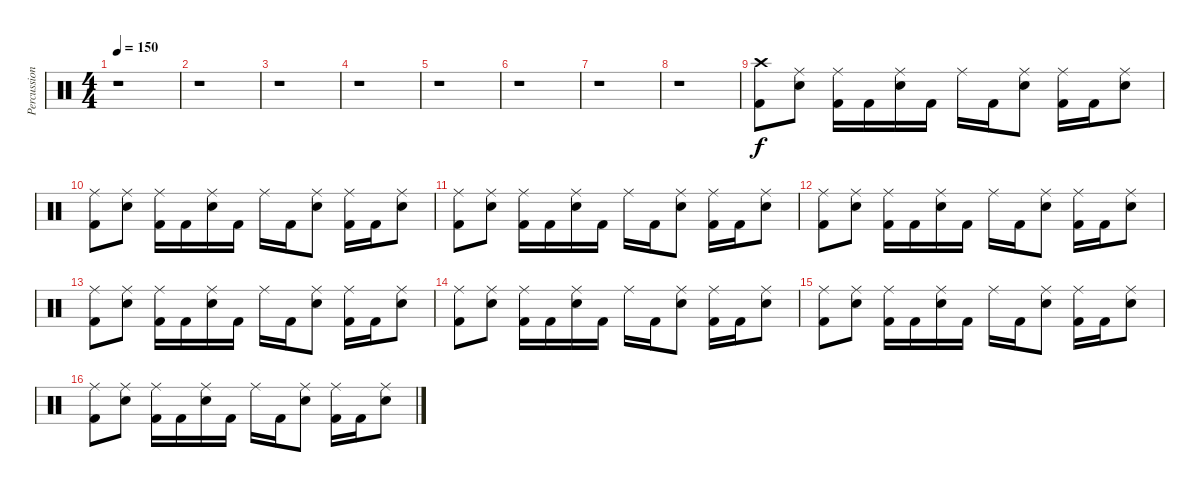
\track ("Percussions" "Percussion") {instrument percussion}
\staff {score}
\articulation defaults
\ts (4 4)
\tempo 150
\clef neutral
\ks c
r.1{dy f} |
r.1 |
r.1 |
r.1 |
r.1 |
r.1 |
r.1 |
r.1 |
("Crash high (hit)" "Kick (hit) 2").8 ("Ride (middle)" "Snare (hit) 2").8 ("Ride (middle)" "Kick (hit) 2").16 "Kick (hit) 2".16 ("Ride (middle)" "Snare (hit) 2").16 "Kick (hit) 2".16 "Ride (middle)".16 "Kick (hit) 2".16 ("Ride (middle)" "Snare (hit) 2").8 ("Ride (middle)" "Kick (hit) 2").16 "Kick (hit) 2".16 ("Ride (middle)" "Snare (hit) 2").8 |
("Ride (middle)" "Kick (hit) 2").8 ("Ride (middle)" "Snare (hit) 2").8 ("Ride (middle)" "Kick (hit) 2").16 "Kick (hit) 2".16 ("Ride (middle)" "Snare (hit) 2").16 "Kick (hit) 2".16 "Ride (middle)".16 "Kick (hit) 2".16 ("Ride (middle)" "Snare (hit) 2").8 ("Ride (middle)" "Kick (hit) 2").16 "Kick (hit) 2".16 ("Ride (middle)" "Snare (hit) 2").8 |
("Ride (middle)" "Kick (hit) 2").8 ("Ride (middle)" "Snare (hit) 2").8 ("Ride (middle)" "Kick (hit) 2").16 "Kick (hit) 2".16 ("Ride (middle)" "Snare (hit) 2").16 "Kick (hit) 2".16 "Ride (middle)".16 "Kick (hit) 2".16 ("Ride (middle)" "Snare (hit) 2").8 ("Ride (middle)" "Kick (hit) 2").16 "Kick (hit) 2".16 ("Ride (middle)" "Snare (hit) 2").8 |
("Ride (middle)" "Kick (hit) 2").8 ("Ride (middle)" "Snare (hit) 2").8 ("Ride (middle)" "Kick (hit) 2").16 "Kick (hit) 2".16 ("Ride (middle)" "Snare (hit) 2").16 "Kick (hit) 2".16 "Ride (middle)".16 "Kick (hit) 2".16 ("Ride (middle)" "Snare (hit) 2").8 ("Ride (middle)" "Kick (hit) 2").16 "Kick (hit) 2".16 ("Ride (middle)" "Snare (hit) 2").8 |
("Ride (middle)" "Kick (hit) 2").8 ("Ride (middle)" "Snare (hit) 2").8 ("Ride (middle)" "Kick (hit) 2").16 "Kick (hit) 2".16 ("Ride (middle)" "Snare (hit) 2").16 "Kick (hit) 2".16 "Ride (middle)".16 "Kick (hit) 2".16 ("Ride (middle)" "Snare (hit) 2").8 ("Ride (middle)" "Kick (hit) 2").16 "Kick (hit) 2".16 ("Ride (middle)" "Snare (hit) 2").8 |
("Ride (middle)" "Kick (hit) 2").8 ("Ride (middle)" "Snare (hit) 2").8 ("Ride (middle)" "Kick (hit) 2").16 "Kick (hit) 2".16 ("Ride (middle)" "Snare (hit) 2").16 "Kick (hit) 2".16 "Ride (middle)".16 "Kick (hit) 2".16 ("Ride (middle)" "Snare (hit) 2").8 ("Ride (middle)" "Kick (hit) 2").16 "Kick (hit) 2".16 ("Ride (middle)" "Snare (hit) 2").8 |
("Ride (middle)" "Kick (hit) 2").8 ("Ride (middle)" "Snare (hit) 2").8 ("Ride (middle)" "Kick (hit) 2").16 "Kick (hit) 2".16 ("Ride (middle)" "Snare (hit) 2").16 "Kick (hit) 2".16 "Ride (middle)".16 "Kick (hit) 2".16 ("Ride (middle)" "Snare (hit) 2").8 ("Ride (middle)" "Kick (hit) 2").16 "Kick (hit) 2".16 ("Ride (middle)" "Snare (hit) 2").8 |
("Ride (middle)" "Kick (hit) 2").8 ("Ride (middle)" "Snare (hit) 2").8 ("Ride (middle)" "Kick (hit) 2").16 "Kick (hit) 2".16 ("Ride (middle)" "Snare (hit) 2").16 "Kick (hit) 2".16 "Ride (middle)".16 "Kick (hit) 2".16 ("Ride (middle)" "Snare (hit) 2").8 ("Ride (middle)" "Kick (hit) 2").16 "Kick (hit) 2".16 ("Ride (middle)" "Snare (hit) 2").8
